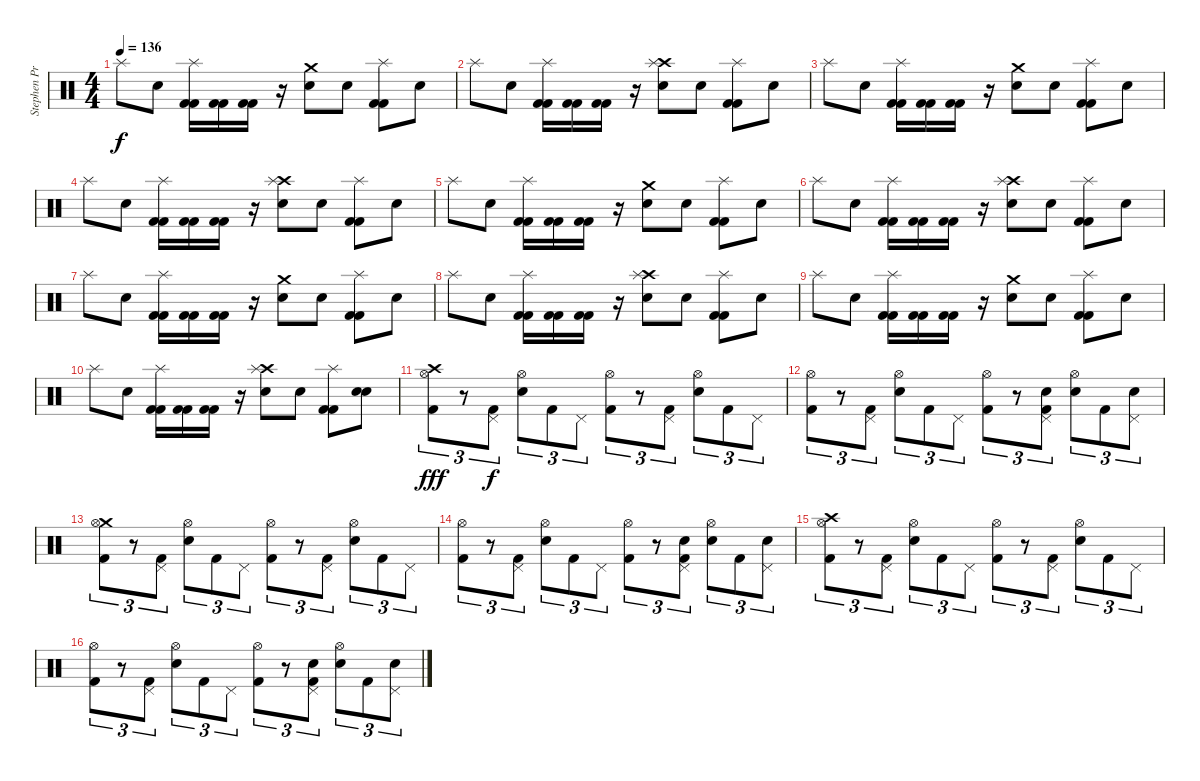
\track ("Stephen Priestly  (Drums)" "Stephen Pr") {instrument percussion}
\staff {score}
\articulation defaults
\ts (4 4)
\tempo 136
\clef neutral
\ks c "Splash (hit)".8{dy f} "Snare (hit)".8
("Splash (hit)" "Kick (hit) 2" "Kick (hit) 2").16 ("Kick (hit) 2" "Kick (hit) 2").16 ("Kick (hit) 2" "Kick (hit) 2").16 r.16 ("Crash medium (hit)" "Electric Snare (hit)").8 "Snare (hit)".8 ("Splash (hit)" "Kick (hit) 2" "Kick (hit) 2").8 "Snare (hit)".8 |
"Splash (hit)".8 "Snare (hit)".8 ("Splash (hit)" "Kick (hit) 2" "Kick (hit) 2").16 ("Kick (hit) 2" "Kick (hit) 2").16 ("Kick (hit) 2" "Kick (hit) 2").16 r.16 ("Crash high (hit)" "Splash (hit)" "Electric Snare (hit)").8 "Snare (hit)".8 ("Splash (hit)" "Kick (hit) 2" "Kick (hit) 2").8 "Snare (hit)".8 |
"Splash (hit)".8 "Snare (hit)".8 ("Splash (hit)" "Kick (hit) 2" "Kick (hit) 2").16 ("Kick (hit) 2" "Kick (hit) 2").16 ("Kick (hit) 2" "Kick (hit) 2").16 r.16 ("Crash medium (hit)" "Electric Snare (hit)").8 "Snare (hit)".8 ("Splash (hit)" "Kick (hit) 2" "Kick (hit) 2").8 "Snare (hit)".8 |
"Splash (hit)".8 "Snare (hit)".8 ("Splash (hit)" "Kick (hit) 2" "Kick (hit) 2").16 ("Kick (hit) 2" "Kick (hit) 2").16 ("Kick (hit) 2" "Kick (hit) 2").16 r.16 ("Crash high (hit)" "Splash (hit)" "Electric Snare (hit)").8 "Snare (hit)".8 ("Splash (hit)" "Kick (hit) 2" "Kick (hit) 2").8 "Snare (hit)".8 |
"Splash (hit)".8 "Snare (hit)".8 ("Splash (hit)" "Kick (hit) 2" "Kick (hit) 2").16 ("Kick (hit) 2" "Kick (hit) 2").16 ("Kick (hit) 2" "Kick (hit) 2").16 r.16 ("Crash medium (hit)" "Electric Snare (hit)").8 "Snare (hit)".8 ("Splash (hit)" "Kick (hit) 2" "Kick (hit) 2").8 "Snare (hit)".8 |
"Splash (hit)".8 "Snare (hit)".8 ("Splash (hit)" "Kick (hit) 2" "Kick (hit) 2").16 ("Kick (hit) 2" "Kick (hit) 2").16 ("Kick (hit) 2" "Kick (hit) 2").16 r.16 ("Crash high (hit)" "Splash (hit)" "Electric Snare (hit)").8 "Snare (hit)".8 ("Splash (hit)" "Kick (hit) 2" "Kick (hit) 2").8 "Snare (hit)".8 |
"Splash (hit)".8 "Snare (hit)".8 ("Splash (hit)" "Kick (hit) 2" "Kick (hit) 2").16 ("Kick (hit) 2" "Kick (hit) 2").16 ("Kick (hit) 2" "Kick (hit) 2").16 r.16 ("Crash medium (hit)" "Electric Snare (hit)").8 "Snare (hit)".8 ("Splash (hit)" "Kick (hit) 2" "Kick (hit) 2").8 "Snare (hit)".8 |
"Splash (hit)".8 "Snare (hit)".8 ("Splash (hit)" "Kick (hit) 2" "Kick (hit) 2").16 ("Kick (hit) 2" "Kick (hit) 2").16 ("Kick (hit) 2" "Kick (hit) 2").16 r.16 ("Crash high (hit)" "Splash (hit)" "Electric Snare (hit)").8 "Snare (hit)".8 ("Splash (hit)" "Kick (hit) 2" "Kick (hit) 2").8 "Snare (hit)".8 |
"Splash (hit)".8 "Snare (hit)".8 ("Splash (hit)" "Kick (hit) 2" "Kick (hit) 2").16 ("Kick (hit) 2" "Kick (hit) 2").16 ("Kick (hit) 2" "Kick (hit) 2").16 r.16 ("Crash medium (hit)" "Electric Snare (hit)").8 "Snare (hit)".8 ("Splash (hit)" "Kick (hit) 2" "Kick (hit) 2").8 "Snare (hit)".8 |
"Splash (hit)".8 "Snare (hit)".8 ("Splash (hit)" "Kick (hit) 2" "Kick (hit) 2").16 ("Kick (hit) 2" "Kick (hit) 2").16 ("Kick (hit) 2" "Kick (hit) 2").16 r.16 ("Crash high (hit)" "Splash (hit)" "Electric Snare (hit)").8 "Snare (hit)".8 ("Splash (hit)" "Kick (hit) 2" "Kick (hit) 2").8 ("Electric Snare (hit)" "Snare (hit) 2").8 |
("Crash high (hit)" "Hi-Hat (open)" "Kick (hit) 2").8{tu (3 2) dy fff} r.8{tu (3 2)} ("Pedal Hi-Hat (hit)" "Kick (hit) 2").8{tu (3 2) dy f} ("Hi-Hat (open)" "Electric Snare (hit)").8{tu (3 2)} "Kick (hit) 2".8{tu (3 2)} "Pedal Hi-Hat (hit)".8{tu (3 2)} ("Hi-Hat (open)" "Kick (hit) 2").8{tu (3 2)} r.8{tu (3 2)} ("Pedal Hi-Hat (hit)" "Kick (hit) 2").8{tu (3 2)} ("Hi-Hat (open)" "Electric Snare (hit)").8{tu (3 2)} "Kick (hit) 2".8{tu (3 2)} "Pedal Hi-Hat (hit)".8{tu (3 2)} |
("Hi-Hat (open)" "Kick (hit) 2").8{tu (3 2)} r.8{tu (3 2)} ("Pedal Hi-Hat (hit)" "Kick (hit) 2").8{tu (3 2)} ("Hi-Hat (open)" "Electric Snare (hit)").8{tu (3 2)} "Kick (hit) 2".8{tu (3 2)} "Pedal Hi-Hat (hit)".8{tu (3 2)} ("Hi-Hat (open)" "Kick (hit) 2").8{tu (3 2)} r.8{tu (3 2)} ("Pedal Hi-Hat (hit)" "Electric Snare (hit)" "Kick (hit) 2").8{tu (3 2)} ("Hi-Hat (open)" "Electric Snare (hit)").8{tu (3 2)} "Kick (hit) 2".8{tu (3 2)} ("Pedal Hi-Hat (hit)" "Electric Snare (hit)").8{tu (3 2)} |
("Crash medium (hit)" "Hi-Hat (open)" "Kick (hit) 2").8{tu (3 2)} r.8{tu (3 2)} ("Pedal Hi-Hat (hit)" "Kick (hit) 2").8{tu (3 2)} ("Hi-Hat (open)" "Electric Snare (hit)").8{tu (3 2)} "Kick (hit) 2".8{tu (3 2)} "Pedal Hi-Hat (hit)".8{tu (3 2)} ("Hi-Hat (open)" "Kick (hit) 2").8{tu (3 2)} r.8{tu (3 2)} ("Pedal Hi-Hat (hit)" "Kick (hit) 2").8{tu (3 2)} ("Hi-Hat (open)" "Electric Snare (hit)").8{tu (3 2)} "Kick (hit) 2".8{tu (3 2)} "Pedal Hi-Hat (hit)".8{tu (3 2)} |
("Hi-Hat (open)" "Kick (hit) 2").8{tu (3 2)} r.8{tu (3 2)} ("Pedal Hi-Hat (hit)" "Kick (hit) 2").8{tu (3 2)} ("Hi-Hat (open)" "Electric Snare (hit)").8{tu (3 2)} "Kick (hit) 2".8{tu (3 2)} "Pedal Hi-Hat (hit)".8{tu (3 2)} ("Hi-Hat (open)" "Kick (hit) 2").8{tu (3 2)} r.8{tu (3 2)} ("Pedal Hi-Hat (hit)" "Electric Snare (hit)" "Kick (hit) 2").8{tu (3 2)} ("Hi-Hat (open)" "Electric Snare (hit)").8{tu (3 2)} "Kick (hit) 2".8{tu (3 2)} ("Pedal Hi-Hat (hit)" "Electric Snare (hit)").8{tu (3 2)} |
("Crash high (hit)" "Hi-Hat (open)" "Kick (hit) 2").8{tu (3 2)} r.8{tu (3 2)} ("Pedal Hi-Hat (hit)" "Kick (hit) 2").8{tu (3 2)} ("Hi-Hat (open)" "Electric Snare (hit)").8{tu (3 2)} "Kick (hit) 2".8{tu (3 2)} "Pedal Hi-Hat (hit)".8{tu (3 2)} ("Hi-Hat (open)" "Kick (hit) 2").8{tu (3 2)} r.8{tu (3 2)} ("Pedal Hi-Hat (hit)" "Kick (hit) 2").8{tu (3 2)} ("Hi-Hat (open)" "Electric Snare (hit)").8{tu (3 2)} "Kick (hit) 2".8{tu (3 2)} "Pedal Hi-Hat (hit)".8{tu (3 2)} |
("Hi-Hat (open)" "Kick (hit) 2").8{tu (3 2)} r.8{tu (3 2)} ("Pedal Hi-Hat (hit)" "Kick (hit) 2").8{tu (3 2)} ("Hi-Hat (open)" "Electric Snare (hit)").8{tu (3 2)} "Kick (hit) 2".8{tu (3 2)} "Pedal Hi-Hat (hit)".8{tu (3 2)} ("Hi-Hat (open)" "Kick (hit) 2").8{tu (3 2)} r.8{tu (3 2)} ("Pedal Hi-Hat (hit)" "Electric Snare (hit)" "Kick (hit) 2").8{tu (3 2)} ("Hi-Hat (open)" "Electric Snare (hit)").8{tu (3 2)} "Kick (hit) 2".8{tu (3 2)} ("Pedal Hi-Hat (hit)" "Electric Snare (hit)").8{tu (3 2)}
